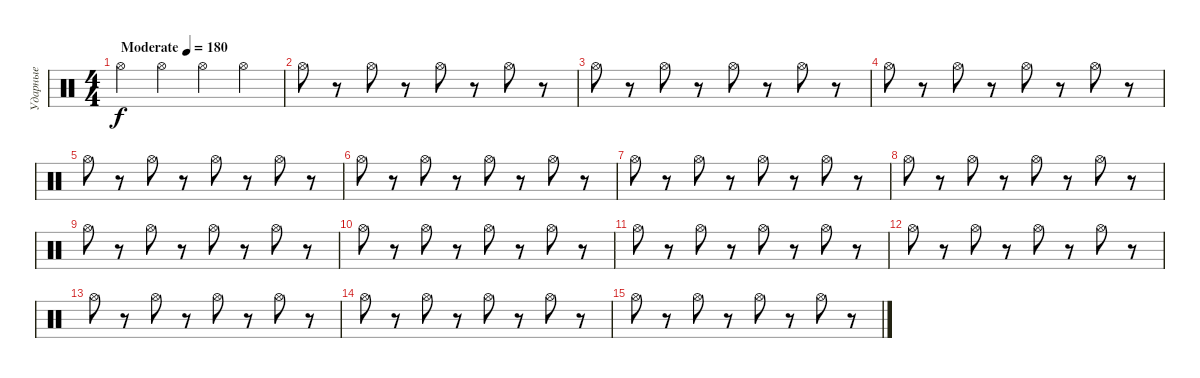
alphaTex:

\track ("Ударные" "Ударные") {instrument percussion}
\staff {score}
\articulation defaults
\ts (4 4)
\tempo (180 "Moderate")
\clef neutral
\ks c "Hi-Hat (open)".4{dy f} "Hi-Hat (open)".4 "Hi-Hat (open)".4 "Hi-Hat (open)".4
|
"Hi-Hat (open)".8 r.8 "Hi-Hat (open)".8 r.8 "Hi-Hat (open)".8 r.8 "Hi-Hat (open)".8 r.8 |
"Hi-Hat (open)".8 r.8 "Hi-Hat (open)".8 r.8 "Hi-Hat (open)".8 r.8 "Hi-Hat (open)".8 r.8 |
"Hi-Hat (open)".8 r.8 "Hi-Hat (open)".8 r.8 "Hi-Hat (open)".8 r.8 "Hi-Hat (open)".8 r.8 |
"Hi-Hat (open)".8 r.8 "Hi-Hat (open)".8 r.8 "Hi-Hat (open)".8 r.8 "Hi-Hat (open)".8 r.8 |
"Hi-Hat (open)".8 r.8 "Hi-Hat (open)".8 r.8 "Hi-Hat (open)".8 r.8 "Hi-Hat (open)".8 r.8 |
"Hi-Hat (open)".8 r.8 "Hi-Hat (open)".8 r.8 "Hi-Hat (open)".8 r.8 "Hi-Hat (open)".8 r.8 |
"Hi-Hat (open)".8 r.8 "Hi-Hat (open)".8 r.8 "Hi-Hat (open)".8 r.8 "Hi-Hat (open)".8 r.8 |
"Hi-Hat (open)".8 r.8 "Hi-Hat (open)".8 r.8 "Hi-Hat (open)".8 r.8 "Hi-Hat (open)".8 r.8 |
"Hi-Hat (open)".8 r.8 "Hi-Hat (open)".8 r.8 "Hi-Hat (open)".8 r.8 "Hi-Hat (open)".8 r.8 |
"Hi-Hat (open)".8 r.8 "Hi-Hat (open)".8 r.8 "Hi-Hat (open)".8 r.8 "Hi-Hat (open)".8 r.8 |
"Hi-Hat (open)".8 r.8 "Hi-Hat (open)".8 r.8 "Hi-Hat (open)".8 r.8 "Hi-Hat (open)".8 r.8 |
"Hi-Hat (open)".8 r.8 "Hi-Hat (open)".8 r.8 "Hi-Hat (open)".8 r.8 "Hi-Hat (open)".8 r.8 |
"Hi-Hat (open)".8 r.8 "Hi-Hat (open)".8 r.8 "Hi-Hat (open)".8 r.8 "Hi-Hat (open)".8 r.8 |
"Hi-Hat (open)".8 r.8 "Hi-Hat (open)".8 r.8 "Hi-Hat (open)".8 r.8 "Hi-Hat (open)".8 r.8
